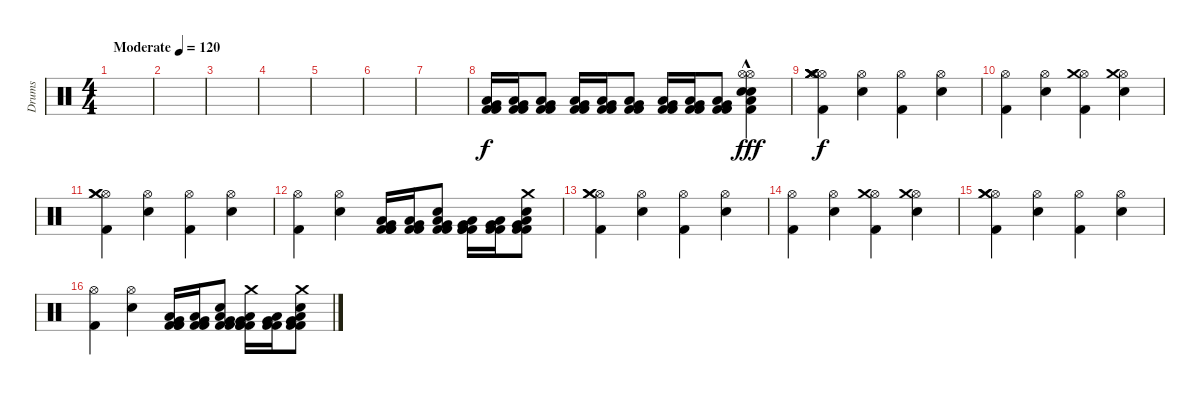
\track ("Drums" "Drums") {instrument percussion}
\staff {score}
\articulation defaults
\ts (4 4)
\tempo (120 "Moderate")
\clef neutral
\ks c
|
|
|
|
|
|
|
("Low Tom (hit)" "Kick (hit) 2" "Very Low Tom (hit)" "Kick (hit) 2").16{volume 16 balance 16} ("Low Tom (hit)" "Kick (hit) 2" "Very Low Tom (hit)" "Kick (hit) 2").16 ("Low Tom (hit)" "Kick (hit) 2" "Very Low Tom (hit)" "Kick (hit) 2").8 ("Low Tom (hit)" "Kick (hit) 2" "Very Low Tom (hit)" "Kick (hit) 2").16{balance 0} ("Low Tom (hit)" "Kick (hit) 2" "Very Low Tom (hit)" "Kick (hit) 2").16 ("Low Tom (hit)" "Kick (hit) 2" "Very Low Tom (hit)" "Kick (hit) 2").8 ("Low Tom (hit)" "Kick (hit) 2" "Very Low Tom (hit)" "Kick (hit) 2").16{balance 8} ("Low Tom (hit)" "Kick (hit) 2" "Very Low Tom (hit)" "Kick (hit) 2").16 ("Low Tom (hit)" "Kick (hit) 2" "Very Low Tom (hit)" "Kick (hit) 2").8 ("Kick (hit) 2"{hac} "Snare (hit) 2"{hac} "Low Tom (hit)"{hac} "Electric Snare (hit)"{hac} "Hi-Hat (open)"{hac} "Hi-Hat (open)").4{dy fff balance 8} |
("Hi-Hat (open)" "Hi-Hat (open)" "Crash medium (hit)" "Kick (hit) 2" "Crash medium (hit)" "Crash medium (hit)").4{dy f} ("Hi-Hat (open)" "Electric Snare (hit)").4 ("Hi-Hat (open)" "Kick (hit) 2").4 ("Hi-Hat (open)" "Electric Snare (hit)").4 |
("Hi-Hat (open)" "Kick (hit) 2").4 ("Hi-Hat (open)" "Electric Snare (hit)").4 ("Hi-Hat (open)" "Kick (hit) 2" "Crash medium (hit)").4 ("Hi-Hat (open)" "Electric Snare (hit)" "Crash medium (hit)").4 |
("Hi-Hat (open)" "Crash medium (hit)" "Kick (hit) 2" "Crash medium (hit)").4 ("Hi-Hat (open)" "Electric Snare (hit)").4 ("Hi-Hat (open)" "Kick (hit) 2").4 ("Hi-Hat (open)" "Electric Snare (hit)").4 |
("Hi-Hat (open)" "Kick (hit) 2").4 ("Hi-Hat (open)" "Electric Snare (hit)").4 ("Low Tom (hit)" "Kick (hit) 2" "Very Low Tom (hit)" "Kick (hit) 2" "Kick (hit) 2").16 ("Low Tom (hit)" "Kick (hit) 2" "Very Low Tom (hit)" "Kick (hit) 2").16 ("Low Tom (hit)" "Kick (hit) 2" "Very Low Tom (hit)" "Kick (hit) 2" "Electric Snare (hit)").8 ("Low Tom (hit)" "Kick (hit) 2" "Very Low Tom (hit)" "Kick (hit) 2" "Kick (hit) 2").16 ("Low Tom (hit)" "Kick (hit) 2" "Very Low Tom (hit)" "Kick (hit) 2").16 ("Low Tom (hit)" "Kick (hit) 2" "Very Low Tom (hit)" "Kick (hit) 2" "Crash medium (hit)" "Electric Snare (hit)").8 |
("Hi-Hat (open)" "Crash medium (hit)" "Kick (hit) 2" "Crash medium (hit)").4 ("Hi-Hat (open)" "Electric Snare (hit)").4 ("Hi-Hat (open)" "Kick (hit) 2").4 ("Hi-Hat (open)" "Electric Snare (hit)").4 |
("Hi-Hat (open)" "Kick (hit) 2").4 ("Hi-Hat (open)" "Electric Snare (hit)").4 ("Hi-Hat (open)" "Kick (hit) 2" "Crash medium (hit)").4 ("Hi-Hat (open)" "Electric Snare (hit)" "Crash medium (hit)").4 |
("Hi-Hat (open)" "Crash medium (hit)" "Kick (hit) 2" "Crash medium (hit)").4 ("Hi-Hat (open)" "Electric Snare (hit)").4 ("Hi-Hat (open)" "Kick (hit) 2").4 ("Hi-Hat (open)" "Electric Snare (hit)").4 |
("Hi-Hat (open)" "Kick (hit) 2").4 ("Hi-Hat (open)" "Electric Snare (hit)").4 ("Low Tom (hit)" "Kick (hit) 2" "Very Low Tom (hit)" "Kick (hit) 2" "Kick (hit) 2").16 ("Low Tom (hit)" "Kick (hit) 2" "Very Low Tom (hit)" "Kick (hit) 2").16 ("Low Tom (hit)" "Kick (hit) 2" "Very Low Tom (hit)" "Kick (hit) 2" "Electric Snare (hit)").8 ("Low Tom (hit)" "Kick (hit) 2" "Very Low Tom (hit)" "Kick (hit) 2" "Crash medium (hit)" "Kick (hit) 2").16 ("Low Tom (hit)" "Kick (hit) 2" "Very Low Tom (hit)" "Kick (hit) 2").16 ("Low Tom (hit)" "Kick (hit) 2" "Very Low Tom (hit)" "Kick (hit) 2" "Crash medium (hit)" "Electric Snare (hit)").8
